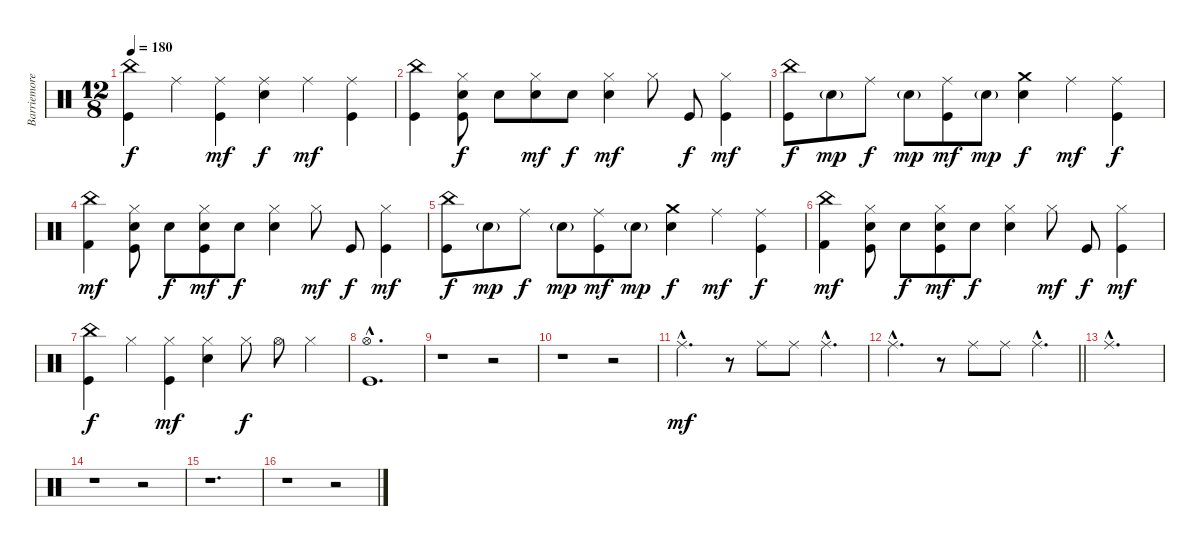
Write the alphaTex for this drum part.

\track ("Barriemore Barlow (drums)" "Barriemore") {instrument percussion}
\staff {score}
\articulation defaults
\ts (12 8)
\tempo 180
\clef neutral
\ks c
("China (hit)" "Kick (hit)").4{dy f} "Ride (middle)".4 ("Ride (middle)" "Kick (hit)").4{dy mf} ("Ride (middle)" "Electric Snare (hit)").4{dy f} "Ride (middle)".4{dy mf} ("Ride (middle)" "Kick (hit)").4 |
("China (hit)" "Kick (hit)").4 ("Hi-Hat (closed)" "Electric Snare (hit)" "Kick (hit)").8{dy f} "Electric Snare (hit)".8 ("Hi-Hat (closed)" "Electric Snare (hit)").8{dy mf} "Electric Snare (hit)".8{dy f} ("Hi-Hat (closed)" "Electric Snare (hit)").4{dy mf} "Hi-Hat (closed)".8 "Kick (hit)".8{dy f} ("Hi-Hat (closed)" "Kick (hit)").4{dy mf} |
("China (hit)" "Kick (hit)").8{dy f} "Electric Snare (hit)"{g}.8{dy mp} "Ride (middle)".8{dy f} "Electric Snare (hit)"{g}.8{dy mp} ("Ride (middle)" "Kick (hit)").8{dy mf} "Electric Snare (hit)"{g}.8{dy mp} ("Crash medium (hit)" "Electric Snare (hit)").4{dy f} "Ride (middle)".4{dy mf} ("Ride (middle)" "Kick (hit)").4{dy f} |
("Kick (hit) 2" "China (hit)").4{dy mf} ("Hi-Hat (closed)" "Electric Snare (hit)" "Kick (hit)").8 "Electric Snare (hit)".8{dy f} ("Hi-Hat (closed)" "Electric Snare (hit)" "Kick (hit)").8{dy mf} "Electric Snare (hit)".8{dy f} ("Hi-Hat (closed)" "Electric Snare (hit)").4 "Hi-Hat (closed)".8{dy mf} "Kick (hit)".8{dy f} ("Hi-Hat (closed)" "Kick (hit)").4{dy mf} |
("China (hit)" "Kick (hit)").8{dy f} "Electric Snare (hit)"{g}.8{dy mp} "Ride (middle)".8{dy f} "Electric Snare (hit)"{g}.8{dy mp} ("Ride (middle)" "Kick (hit)").8{dy mf} "Electric Snare (hit)"{g}.8{dy mp} ("Crash medium (hit)" "Electric Snare (hit)").4{dy f} "Ride (middle)".4{dy mf} ("Ride (middle)" "Kick (hit)").4{dy f} |
("Kick (hit) 2" "China (hit)").4{dy mf} ("Hi-Hat (closed)" "Electric Snare (hit)" "Kick (hit)").8 "Electric Snare (hit)".8{dy f} ("Hi-Hat (closed)" "Electric Snare (hit)" "Kick (hit)").8{dy mf} "Electric Snare (hit)".8{dy f} ("Hi-Hat (closed)" "Electric Snare (hit)").4 "Hi-Hat (closed)".8{dy mf} "Kick (hit)".8{dy f} ("Hi-Hat (closed)" "Kick (hit)").4{dy mf} |
("China (hit)" "Kick (hit)").4{dy f} "Hi-Hat (closed)".4 ("Hi-Hat (closed)" "Kick (hit)").4{dy mf} ("Hi-Hat (closed)" "Electric Snare (hit)").4 "Hi-Hat (closed)".8{dy f} "Hi-Hat (open)".8 "Hi-Hat (closed)".4 |
("Hi-Hat (open)"{hac} "Kick (hit)"{hac}).1{d} |
r.1 r.2 |
r.1 r.2 |
"Ride (middle)"{hac}.2{d dy mf} r.8 "Ride (middle)".8 "Ride (middle)".8 "Ride (middle)"{hac}.4{d} |
\barLineRight lightlight "Ride (middle)"{hac}.2{d}
r.8 "Ride (middle)".8 "Ride (middle)".8 "Ride (middle)"{hac}.4{d} |
"Ride (middle)"{hac}.1{d} |
r.1 r.2 |
r.1{d} |
r.1 r.2
